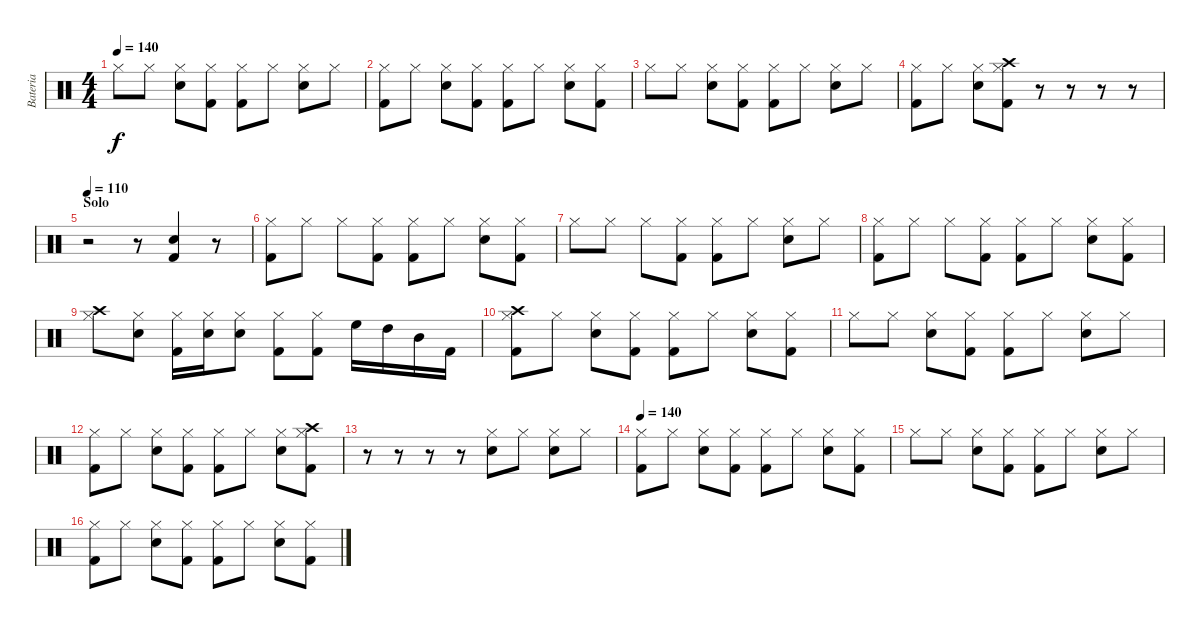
\track ("Bateria" "Bateria") {instrument percussion}
\staff {score}
\articulation defaults
\ts (4 4)
\tempo 140
\clef neutral
\ks c "Hi-Hat (closed)".8{dy f} "Hi-Hat (closed)".8
("Hi-Hat (closed)" "Snare (hit) 2").8 ("Hi-Hat (closed)" "Kick (hit) 2").8 ("Hi-Hat (closed)" "Kick (hit) 2").8 "Hi-Hat (closed)".8 ("Hi-Hat (closed)" "Snare (hit) 2").8 "Hi-Hat (closed)".8 |
("Hi-Hat (closed)" "Kick (hit) 2").8 "Hi-Hat (closed)".8 ("Hi-Hat (closed)" "Snare (hit) 2").8 ("Hi-Hat (closed)" "Kick (hit) 2").8 ("Hi-Hat (closed)" "Kick (hit) 2").8 "Hi-Hat (closed)".8 ("Hi-Hat (closed)" "Snare (hit) 2").8 ("Hi-Hat (closed)" "Kick (hit) 2").8 |
"Hi-Hat (closed)".8 "Hi-Hat (closed)".8 ("Hi-Hat (closed)" "Snare (hit) 2").8 ("Hi-Hat (closed)" "Kick (hit) 2").8 ("Hi-Hat (closed)" "Kick (hit) 2").8 "Hi-Hat (closed)".8 ("Hi-Hat (closed)" "Snare (hit) 2").8 "Hi-Hat (closed)".8 |
("Hi-Hat (closed)" "Kick (hit) 2").8 "Hi-Hat (closed)".8 ("Hi-Hat (closed)" "Snare (hit) 2").8 ("Hi-Hat (closed)" "Crash high (hit)" "Kick (hit) 2").8 r.8 r.8 r.8 r.8 |
\section ("" "Solo")
\tempo 110
r.2 r.8 ("Snare (hit) 2" "Kick (hit) 2").4 r.8 |
("Hi-Hat (closed)" "Kick (hit) 2").8 "Hi-Hat (closed)".8 "Hi-Hat (closed)".8 ("Hi-Hat (closed)" "Kick (hit) 2").8 ("Hi-Hat (closed)" "Kick (hit) 2").8 "Hi-Hat (closed)".8 ("Hi-Hat (closed)" "Snare (hit) 2").8 ("Hi-Hat (closed)" "Kick (hit) 2").8 |
"Hi-Hat (closed)".8 "Hi-Hat (closed)".8 "Hi-Hat (closed)".8 ("Hi-Hat (closed)" "Kick (hit) 2").8 ("Hi-Hat (closed)" "Kick (hit) 2").8 "Hi-Hat (closed)".8 ("Hi-Hat (closed)" "Snare (hit) 2").8 "Hi-Hat (closed)".8 |
("Hi-Hat (closed)" "Kick (hit) 2").8 "Hi-Hat (closed)".8 "Hi-Hat (closed)".8 ("Hi-Hat (closed)" "Kick (hit) 2").8 ("Hi-Hat (closed)" "Kick (hit) 2").8 "Hi-Hat (closed)".8 ("Hi-Hat (closed)" "Snare (hit) 2").8 ("Hi-Hat (closed)" "Kick (hit) 2").8 |
("Hi-Hat (closed)" "Crash high (hit)").8 ("Hi-Hat (closed)" "Snare (hit) 2").8 ("Hi-Hat (closed)" "Kick (hit) 2").16 ("Hi-Hat (closed)" "Snare (hit) 2").16 ("Hi-Hat (closed)" "Snare (hit) 2").8 ("Hi-Hat (closed)" "Kick (hit) 2").8 ("Hi-Hat (closed)" "Kick (hit) 2").8 "High Floor Tom (hit)".16 "High Tom (hit)".16 "Mid Tom (hit)".16 "Kick (hit) 2".16 |
("Hi-Hat (closed)" "Crash high (hit)" "Kick (hit) 2").8 "Hi-Hat (closed)".8 ("Hi-Hat (closed)" "Snare (hit) 2").8 ("Hi-Hat (closed)" "Kick (hit) 2").8 ("Hi-Hat (closed)" "Kick (hit) 2").8 "Hi-Hat (closed)".8 ("Hi-Hat (closed)" "Snare (hit) 2").8 ("Hi-Hat (closed)" "Kick (hit) 2").8 |
"Hi-Hat (closed)".8 "Hi-Hat (closed)".8 ("Hi-Hat (closed)" "Snare (hit) 2").8 ("Hi-Hat (closed)" "Kick (hit) 2").8 ("Hi-Hat (closed)" "Kick (hit) 2").8 "Hi-Hat (closed)".8 ("Hi-Hat (closed)" "Snare (hit) 2").8 "Hi-Hat (closed)".8 |
("Hi-Hat (closed)" "Kick (hit) 2").8 "Hi-Hat (closed)".8 ("Hi-Hat (closed)" "Snare (hit) 2").8 ("Hi-Hat (closed)" "Kick (hit) 2").8 ("Hi-Hat (closed)" "Kick (hit) 2").8 "Hi-Hat (closed)".8 ("Hi-Hat (closed)" "Snare (hit) 2").8 ("Hi-Hat (closed)" "Crash high (hit)" "Kick (hit) 2").8 |
r.8 r.8 r.8 r.8 ("Hi-Hat (closed)" "Snare (hit) 2").8 "Hi-Hat (closed)".8 ("Hi-Hat (closed)" "Snare (hit) 2").8 "Hi-Hat (closed)".8 |
\tempo 140
("Hi-Hat (closed)" "Kick (hit) 2").8 "Hi-Hat (closed)".8 ("Hi-Hat (closed)" "Snare (hit) 2").8 ("Hi-Hat (closed)" "Kick (hit) 2").8 ("Hi-Hat (closed)" "Kick (hit) 2").8 "Hi-Hat (closed)".8 ("Hi-Hat (closed)" "Snare (hit) 2").8 ("Hi-Hat (closed)" "Kick (hit) 2").8 |
"Hi-Hat (closed)".8 "Hi-Hat (closed)".8 ("Hi-Hat (closed)" "Snare (hit) 2").8 ("Hi-Hat (closed)" "Kick (hit) 2").8 ("Hi-Hat (closed)" "Kick (hit) 2").8 "Hi-Hat (closed)".8 ("Hi-Hat (closed)" "Snare (hit) 2").8 "Hi-Hat (closed)".8 |
("Hi-Hat (closed)" "Kick (hit) 2").8 "Hi-Hat (closed)".8 ("Hi-Hat (closed)" "Snare (hit) 2").8 ("Hi-Hat (closed)" "Kick (hit) 2").8 ("Hi-Hat (closed)" "Kick (hit) 2").8 "Hi-Hat (closed)".8 ("Hi-Hat (closed)" "Snare (hit) 2").8 ("Hi-Hat (closed)" "Kick (hit) 2").8
